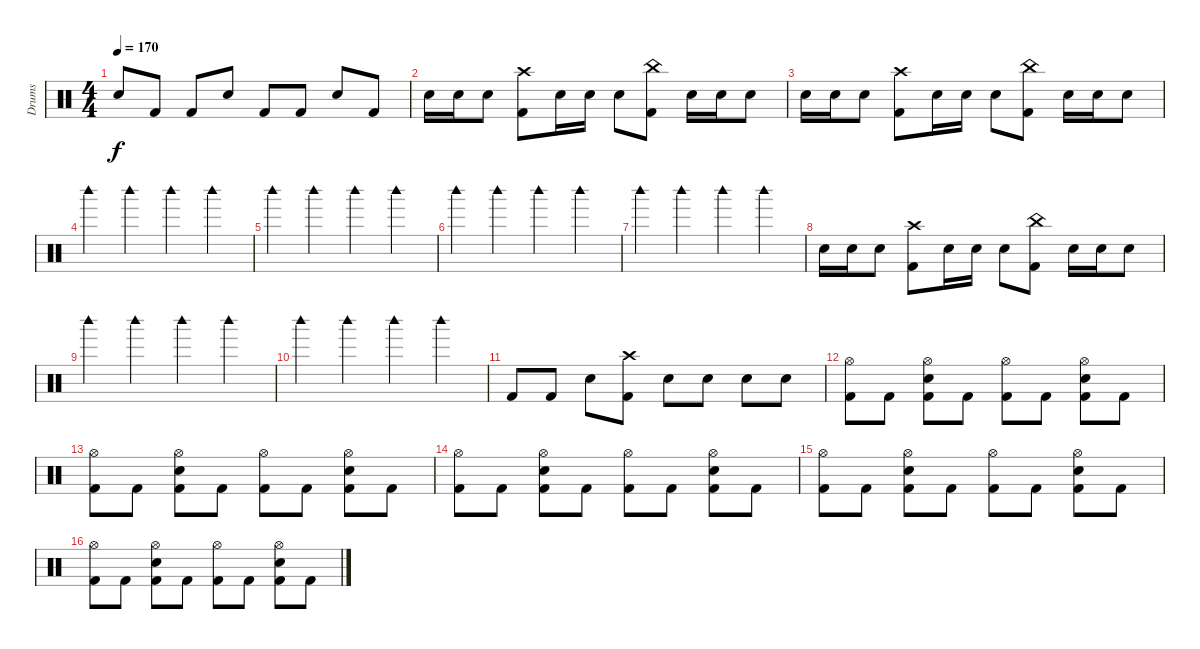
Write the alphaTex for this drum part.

\track ("Drums" "Drums") {instrument percussion}
\staff {score}
\articulation defaults
\ts (4 4)
\tempo 170
\clef neutral
\ks c "Snare (hit) 2".8{dy f} "Kick (hit) 2".8 "Kick (hit) 2".8 "Snare (hit) 2".8 "Kick (hit) 2".8 "Kick (hit) 2".8 "Snare (hit) 2".8 "Kick (hit) 2".8
|
"Snare (hit) 2".16 "Snare (hit) 2".16 "Snare (hit) 2".8 ("Crash high (hit)" "Kick (hit) 2").8 "Snare (hit) 2".16 "Snare (hit) 2".16 "Snare (hit) 2".8 ("China (hit)" "Kick (hit) 2").8 "Snare (hit) 2".16 "Snare (hit) 2".16 "Snare (hit) 2".8 |
"Snare (hit) 2".16 "Snare (hit) 2".16 "Snare (hit) 2".8 ("Crash high (hit)" "Kick (hit) 2").8 "Snare (hit) 2".16 "Snare (hit) 2".16 "Snare (hit) 2".8 ("China (hit)" "Kick (hit) 2").8 "Snare (hit) 2".16 "Snare (hit) 2".16 "Snare (hit) 2".8 |
"Woodblock high (hit)".4 "Woodblock high (hit)".4 "Woodblock high (hit)".4 "Woodblock high (hit)".4 |
"Woodblock high (hit)".4 "Woodblock high (hit)".4 "Woodblock high (hit)".4 "Woodblock high (hit)".4 |
"Woodblock high (hit)".4 "Woodblock high (hit)".4 "Woodblock high (hit)".4 "Woodblock high (hit)".4 |
"Woodblock high (hit)".4 "Woodblock high (hit)".4 "Woodblock high (hit)".4 "Woodblock high (hit)".4 |
"Snare (hit) 2".16 "Snare (hit) 2".16 "Snare (hit) 2".8 ("Crash high (hit)" "Kick (hit) 2").8 "Snare (hit) 2".16 "Snare (hit) 2".16 "Snare (hit) 2".8 ("China (hit)" "Kick (hit) 2").8 "Snare (hit) 2".16 "Snare (hit) 2".16 "Snare (hit) 2".8 |
"Woodblock high (hit)".4 "Woodblock high (hit)".4 "Woodblock high (hit)".4 "Woodblock high (hit)".4 |
"Woodblock high (hit)".4 "Woodblock high (hit)".4 "Woodblock high (hit)".4 "Woodblock high (hit)".4 |
"Kick (hit) 2".8 "Kick (hit) 2".8 "Snare (hit) 2".8 ("Crash high (hit)" "Kick (hit) 2").8 "Snare (hit) 2".8 "Snare (hit) 2".8 "Snare (hit) 2".8 "Snare (hit) 2".8 |
("Hi-Hat (open)" "Kick (hit) 2").8 "Kick (hit) 2".8 ("Hi-Hat (open)" "Snare (hit) 2" "Kick (hit) 2").8 "Kick (hit) 2".8 ("Hi-Hat (open)" "Kick (hit) 2").8 "Kick (hit) 2".8 ("Hi-Hat (open)" "Snare (hit) 2" "Kick (hit) 2").8 "Kick (hit) 2".8 |
("Hi-Hat (open)" "Kick (hit) 2").8 "Kick (hit) 2".8 ("Hi-Hat (open)" "Snare (hit) 2" "Kick (hit) 2").8 "Kick (hit) 2".8 ("Hi-Hat (open)" "Kick (hit) 2").8 "Kick (hit) 2".8 ("Hi-Hat (open)" "Snare (hit) 2" "Kick (hit) 2").8 "Kick (hit) 2".8 |
("Hi-Hat (open)" "Kick (hit) 2").8 "Kick (hit) 2".8 ("Hi-Hat (open)" "Snare (hit) 2" "Kick (hit) 2").8 "Kick (hit) 2".8 ("Hi-Hat (open)" "Kick (hit) 2").8 "Kick (hit) 2".8 ("Hi-Hat (open)" "Snare (hit) 2" "Kick (hit) 2").8 "Kick (hit) 2".8 |
("Hi-Hat (open)" "Kick (hit) 2").8 "Kick (hit) 2".8 ("Hi-Hat (open)" "Snare (hit) 2" "Kick (hit) 2").8 "Kick (hit) 2".8 ("Hi-Hat (open)" "Kick (hit) 2").8 "Kick (hit) 2".8 ("Hi-Hat (open)" "Snare (hit) 2" "Kick (hit) 2").8 "Kick (hit) 2".8 |
("Hi-Hat (open)" "Kick (hit) 2").8 "Kick (hit) 2".8 ("Hi-Hat (open)" "Snare (hit) 2" "Kick (hit) 2").8 "Kick (hit) 2".8 ("Hi-Hat (open)" "Kick (hit) 2").8 "Kick (hit) 2".8 ("Hi-Hat (open)" "Snare (hit) 2" "Kick (hit) 2").8 "Kick (hit) 2".8
